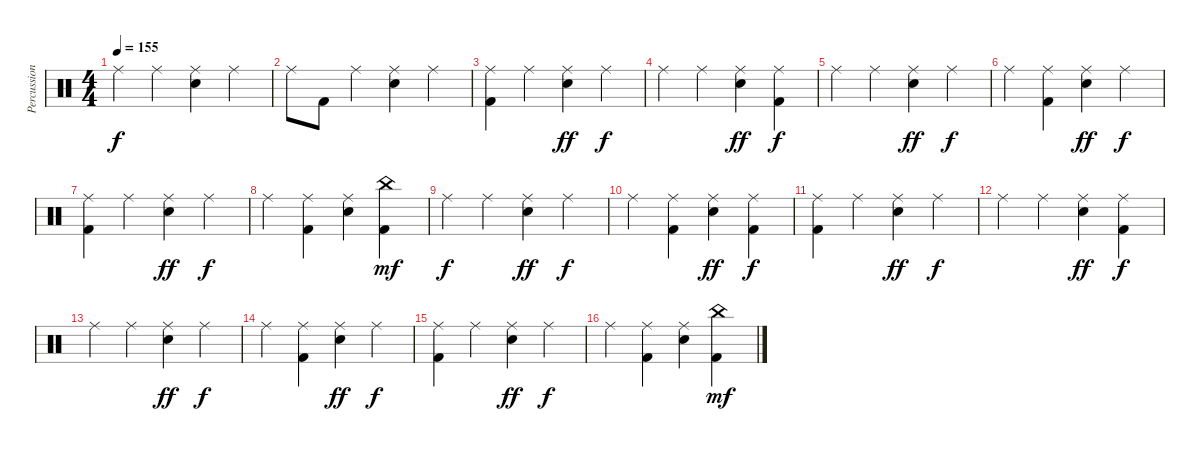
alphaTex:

\track ("Percussions" "Percussion") {instrument percussion}
\staff {score}
\articulation defaults
\ts (4 4)
\tempo 155
\clef neutral
\ks c "Ride (middle)".4{dy f} "Ride (middle)".4
("Ride (middle)" "Electric Snare (hit)").4 "Ride (middle)".4 |
"Ride (middle)".8 "Kick (hit) 2".8 "Ride (middle)".4 ("Ride (middle)" "Electric Snare (hit)").4 "Ride (middle)".4 |
("Ride (middle)" "Kick (hit) 2").4 "Ride (middle)".4 ("Ride (middle)" "Electric Snare (hit)").4{dy ff} "Ride (middle)".4{dy f} |
"Ride (middle)".4 "Ride (middle)".4 ("Ride (middle)" "Electric Snare (hit)").4{dy ff} ("Ride (middle)" "Kick (hit) 2").4{dy f} |
"Ride (middle)".4 "Ride (middle)".4 ("Ride (middle)" "Electric Snare (hit)").4{dy ff} "Ride (middle)".4{dy f} |
"Ride (middle)".4 ("Ride (middle)" "Kick (hit) 2").4 ("Ride (middle)" "Electric Snare (hit)").4{dy ff} "Ride (middle)".4{dy f} |
("Ride (middle)" "Kick (hit) 2").4 "Ride (middle)".4 ("Ride (middle)" "Electric Snare (hit)").4{dy ff} "Ride (middle)".4{dy f} |
"Ride (middle)".4 ("Ride (middle)" "Kick (hit) 2").4 ("Ride (middle)" "Electric Snare (hit)").4 ("China (hit)" "Kick (hit) 2").4{dy mf} |
"Ride (middle)".4{dy f} "Ride (middle)".4 ("Ride (middle)" "Electric Snare (hit)").4{dy ff} "Ride (middle)".4{dy f} |
"Ride (middle)".4 ("Ride (middle)" "Kick (hit) 2").4 ("Ride (middle)" "Electric Snare (hit)").4{dy ff} ("Ride (middle)" "Kick (hit) 2").4{dy f} |
("Ride (middle)" "Kick (hit) 2").4 "Ride (middle)".4 ("Ride (middle)" "Electric Snare (hit)").4{dy ff} "Ride (middle)".4{dy f} |
"Ride (middle)".4 "Ride (middle)".4 ("Ride (middle)" "Electric Snare (hit)").4{dy ff} ("Ride (middle)" "Kick (hit) 2").4{dy f} |
"Ride (middle)".4 "Ride (middle)".4 ("Ride (middle)" "Electric Snare (hit)").4{dy ff} "Ride (middle)".4{dy f} |
"Ride (middle)".4 ("Ride (middle)" "Kick (hit) 2").4 ("Ride (middle)" "Electric Snare (hit)").4{dy ff} "Ride (middle)".4{dy f} |
("Ride (middle)" "Kick (hit) 2").4 "Ride (middle)".4 ("Ride (middle)" "Electric Snare (hit)").4{dy ff} "Ride (middle)".4{dy f} |
"Ride (middle)".4 ("Ride (middle)" "Kick (hit) 2").4 ("Ride (middle)" "Electric Snare (hit)").4 ("China (hit)" "Kick (hit) 2").4{dy mf}
